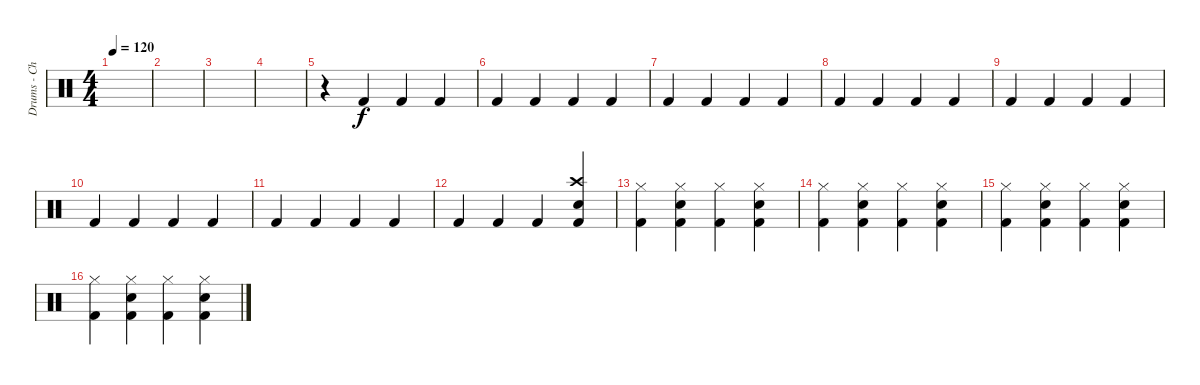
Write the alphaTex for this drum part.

\track ("Drums - Chris Frantz" "Drums - Ch") {instrument percussion}
\staff {score}
\articulation defaults
\ts (4 4)
\tempo 120
\clef neutral
\ks c
|
|
|
|
r.4 "Kick (hit) 2".4 "Kick (hit) 2".4 "Kick (hit) 2".4 |
"Kick (hit) 2".4 "Kick (hit) 2".4 "Kick (hit) 2".4 "Kick (hit) 2".4 |
"Kick (hit) 2".4 "Kick (hit) 2".4 "Kick (hit) 2".4 "Kick (hit) 2".4 |
"Kick (hit) 2".4 "Kick (hit) 2".4 "Kick (hit) 2".4 "Kick (hit) 2".4 |
"Kick (hit) 2".4 "Kick (hit) 2".4 "Kick (hit) 2".4 "Kick (hit) 2".4 |
"Kick (hit) 2".4 "Kick (hit) 2".4 "Kick (hit) 2".4 "Kick (hit) 2".4 |
"Kick (hit) 2".4 "Kick (hit) 2".4 "Kick (hit) 2".4 "Kick (hit) 2".4 |
"Kick (hit) 2".4 "Kick (hit) 2".4 "Kick (hit) 2".4 ("Kick (hit) 2" "Crash high (hit)" "Snare (hit) 2").4 |
("Kick (hit) 2" "Hi-Hat (closed)").4 ("Kick (hit) 2" "Snare (hit) 2" "Hi-Hat (closed)").4 ("Kick (hit) 2" "Hi-Hat (closed)").4 ("Kick (hit) 2" "Snare (hit) 2" "Hi-Hat (closed)").4 |
("Kick (hit) 2" "Hi-Hat (closed)").4 ("Kick (hit) 2" "Snare (hit) 2" "Hi-Hat (closed)").4 ("Kick (hit) 2" "Hi-Hat (closed)").4 ("Kick (hit) 2" "Snare (hit) 2" "Hi-Hat (closed)").4 |
("Kick (hit) 2" "Hi-Hat (closed)").4 ("Kick (hit) 2" "Snare (hit) 2" "Hi-Hat (closed)").4 ("Kick (hit) 2" "Hi-Hat (closed)").4 ("Kick (hit) 2" "Snare (hit) 2" "Hi-Hat (closed)").4 |
("Kick (hit) 2" "Hi-Hat (closed)").4 ("Kick (hit) 2" "Snare (hit) 2" "Hi-Hat (closed)").4 ("Kick (hit) 2" "Hi-Hat (closed)").4 ("Kick (hit) 2" "Snare (hit) 2" "Hi-Hat (closed)").4
